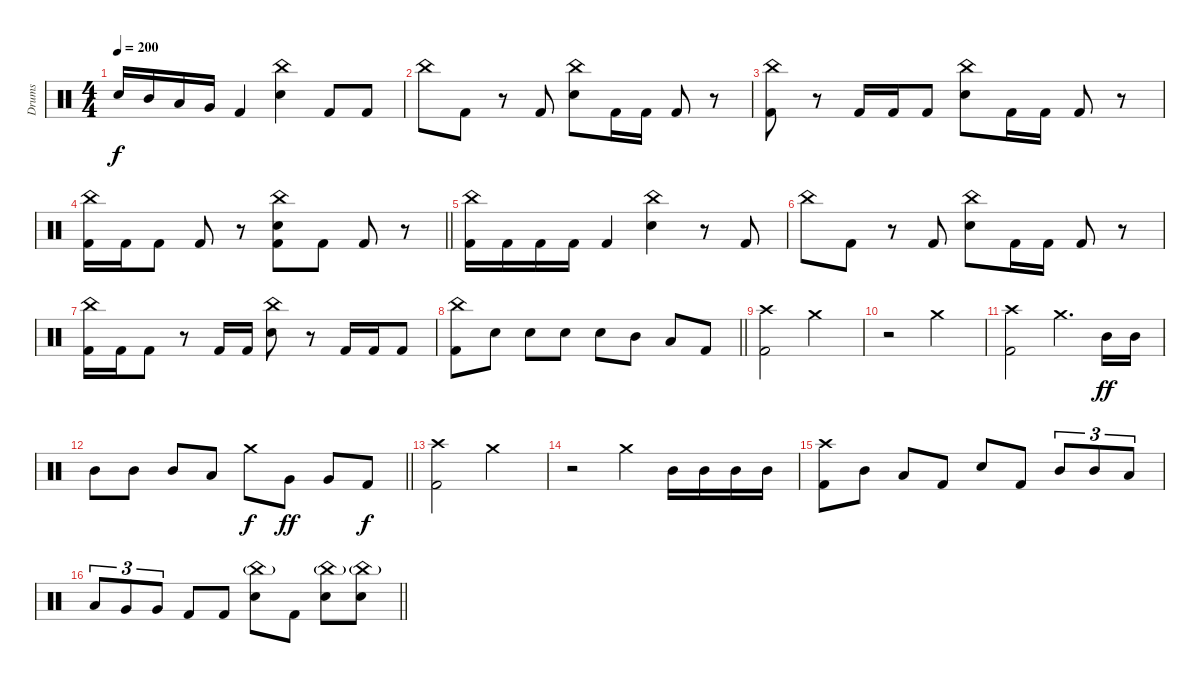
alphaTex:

\track ("Drums" "Drums") {instrument percussion}
\staff {score}
\articulation defaults
\ts (4 4)
\tempo 200
\clef neutral
\ks c "Electric Snare (hit)".16{dy f} "Mid Tom (hit)".16 "Low Tom (hit)".16 "Very Low Tom (hit)".16 "Kick (hit) 2".4
("China (hit)" "Electric Snare (hit)").4 "Kick (hit) 2".8 "Kick (hit) 2".8 |
"China (hit)".8 "Kick (hit) 2".8 r.8 "Kick (hit) 2".8 ("China (hit)" "Electric Snare (hit)").8 "Kick (hit) 2".16 "Kick (hit) 2".16 "Kick (hit) 2".8 r.8 |
("China (hit)" "Kick (hit) 2").8 r.8 "Kick (hit) 2".16 "Kick (hit) 2".16 "Kick (hit) 2".8 ("China (hit)" "Electric Snare (hit)").8 "Kick (hit) 2".16 "Kick (hit) 2".16 "Kick (hit) 2".8 r.8 |
\barLineRight lightlight
("China (hit)" "Kick (hit) 2").16 "Kick (hit) 2".16 "Kick (hit) 2".8 "Kick (hit) 2".8 r.8 ("China (hit)" "Electric Snare (hit)" "Kick (hit) 2").8 "Kick (hit) 2".8 "Kick (hit) 2".8 r.8 |
("China (hit)" "Kick (hit) 2").16 "Kick (hit) 2".16 "Kick (hit) 2".16 "Kick (hit) 2".16 "Kick (hit) 2".4 ("China (hit)" "Electric Snare (hit)").4 r.8 "Kick (hit) 2".8 |
"China (hit)".8 "Kick (hit) 2".8 r.8 "Kick (hit) 2".8 ("China (hit)" "Electric Snare (hit)").8 "Kick (hit) 2".16 "Kick (hit) 2".16 "Kick (hit) 2".8 r.8 |
("China (hit)" "Kick (hit) 2").16 "Kick (hit) 2".16 "Kick (hit) 2".8 r.8 "Kick (hit) 2".16 "Kick (hit) 2".16 ("China (hit)" "Electric Snare (hit)").8 r.8 "Kick (hit) 2".16 "Kick (hit) 2".16 "Kick (hit) 2".8 |
\barLineRight lightlight
("China (hit)" "Kick (hit) 2").8 "Electric Snare (hit)".8 "Electric Snare (hit)".8 "Electric Snare (hit)".8 "Electric Snare (hit)".8 "Mid Tom (hit)".8 "Low Tom (hit)".8 "Kick (hit) 2".8 |
("Crash high (hit)" "Kick (hit) 2").2 "Crash medium (hit)".2 |
r.2 "Crash medium (hit)".2 |
("Crash high (hit)" "Kick (hit) 2").2 "Crash medium (hit)".4{d} "Mid Tom (hit)".16{dy ff} "Mid Tom (hit)".16 |
\barLineRight lightlight "Mid Tom (hit)".8 "Mid Tom (hit)".8 "Mid Tom (hit)".8 "Low Tom (hit)".8 "Crash medium (hit)".8{dy f} "Very Low Tom (hit)".8{dy ff} "Very Low Tom (hit)".8 "Kick (hit) 2".8{dy f}
|
("Crash high (hit)" "Kick (hit) 2").2 "Crash medium (hit)".2 |
r.2 "Crash medium (hit)".4 "Mid Tom (hit)".16 "Mid Tom (hit)".16 "Mid Tom (hit)".16 "Mid Tom (hit)".16 |
("Crash high (hit)" "Kick (hit) 2").8 "Mid Tom (hit)".8 "Low Tom (hit)".8 "Kick (hit) 2".8 "Electric Snare (hit)".8 "Kick (hit) 2".8 "Mid Tom (hit)".8{tu (3 2)} "Mid Tom (hit)".8{tu (3 2)} "Low Tom (hit)".8{tu (3 2)} |
\barLineRight lightlight "Low Tom (hit)".8{tu (3 2)} "Very Low Tom (hit)".8{tu (3 2)} "Very Low Tom (hit)".8{tu (3 2)} "Kick (hit) 2".8 "Kick (hit) 2".8
("China (hit)"{g} "Electric Snare (hit)").8 "Kick (hit) 2".8 ("China (hit)"{g} "Electric Snare (hit)").8 ("China (hit)"{g} "Electric Snare (hit)").8
